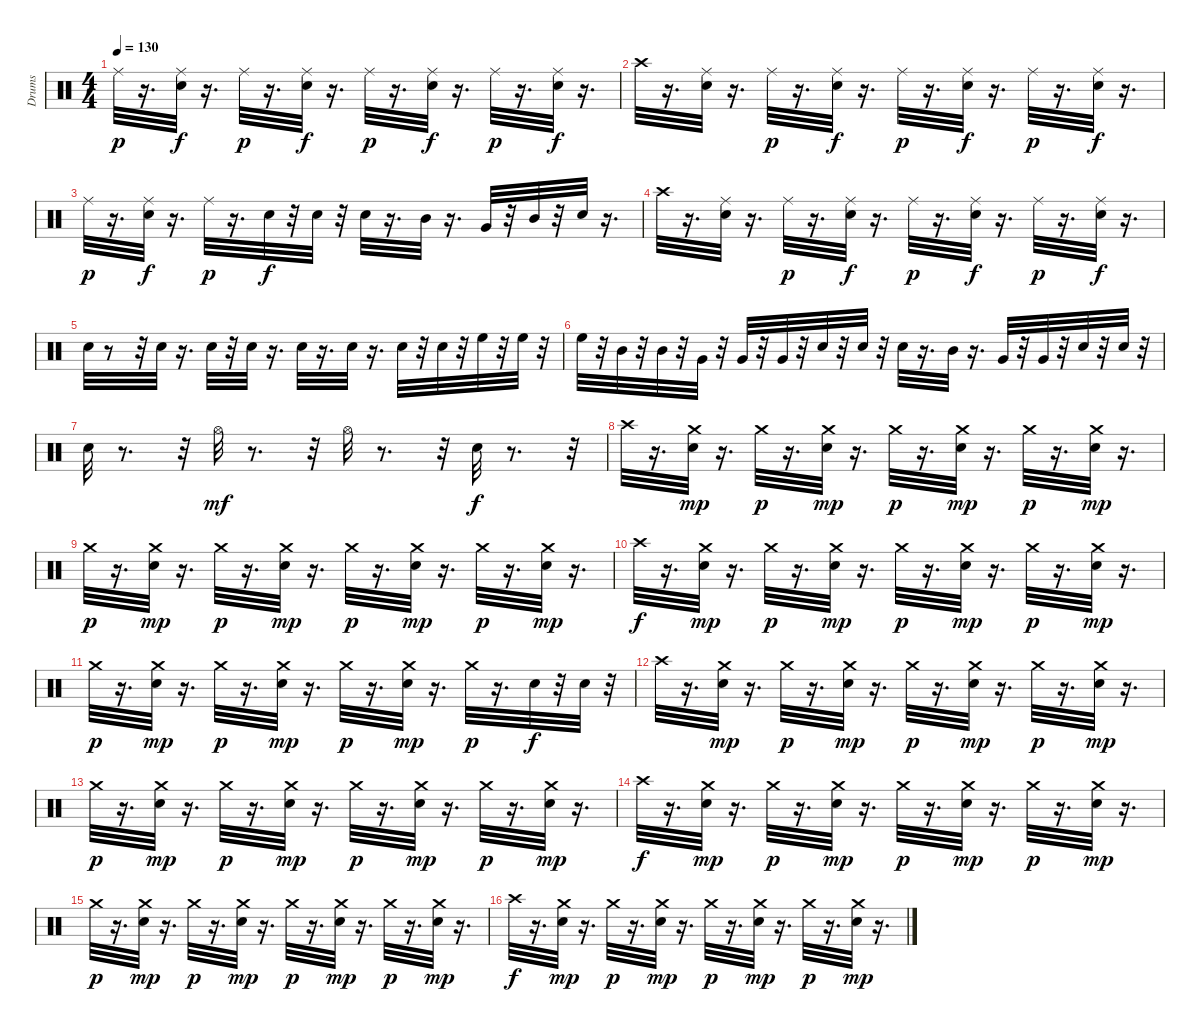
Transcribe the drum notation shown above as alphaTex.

\track ("Drums" "Drums") {instrument percussion}
\staff {score}
\articulation defaults
\ts (4 4)
\tempo 130
\clef neutral
\ks c "Ride (middle)".32{dy p}
r.16{d} ("Snare (hit) 2" "Ride (middle)").32{dy f} r.16{d} "Ride (middle)".32{dy p} r.16{d} ("Snare (hit) 2" "Ride (middle)").32{dy f} r.16{d} "Ride (middle)".32{dy p} r.16{d} ("Snare (hit) 2" "Ride (middle)").32{dy f} r.16{d} "Ride (middle)".32{dy p} r.16{d} ("Snare (hit) 2" "Ride (middle)").32{dy f} r.16{d} |
"Crash high (hit)".32 r.16{d} ("Snare (hit) 2" "Ride (middle)").32 r.16{d} "Ride (middle)".32{dy p} r.16{d} ("Snare (hit) 2" "Ride (middle)").32{dy f} r.16{d} "Ride (middle)".32{dy p} r.16{d} ("Snare (hit) 2" "Ride (middle)").32{dy f} r.16{d} "Ride (middle)".32{dy p} r.16{d} ("Snare (hit) 2" "Ride (middle)").32{dy f} r.16{d} |
"Ride (middle)".32{dy p} r.16{d} ("Snare (hit) 2" "Ride (middle)").32{dy f} r.16{d} "Ride (middle)".32{dy p} r.16{d} "Snare (hit) 2".32{dy f} r.32 "Snare (hit) 2".32 r.32 "Snare (hit) 2".32 r.16{d} "Mid Tom (hit)".32 r.16{d} "Very Low Tom (hit)".32 r.32 "Mid Tom (hit)".32 r.32 "Snare (hit)".32 r.16{d} |
"Crash high (hit)".32 r.16{d} ("Snare (hit) 2" "Ride (middle)").32 r.16{d} "Ride (middle)".32{dy p} r.16{d} ("Snare (hit) 2" "Ride (middle)").32{dy f} r.16{d} "Ride (middle)".32{dy p} r.16{d} ("Snare (hit) 2" "Ride (middle)").32{dy f} r.16{d} "Ride (middle)".32{dy p} r.16{d} ("Snare (hit) 2" "Ride (middle)").32{dy f} r.16{d} |
"Snare (hit) 2".32 r.8 r.32 "Snare (hit) 2".32 r.16{d} "Snare (hit) 2".32 r.32 "Snare (hit) 2".32 r.16{d} "Snare (hit) 2".32 r.16{d} "Snare (hit) 2".32 r.16{d} "Snare (hit) 2".32 r.32 "Snare (hit) 2".32 r.32 "High Floor Tom (hit)".32 r.32 "High Floor Tom (hit)".32 r.32 |
"High Floor Tom (hit)".32 r.32 "Mid Tom (hit)".32 r.32 "Mid Tom (hit)".32 r.32 "Very Low Tom (hit)".32 r.32 "Very Low Tom (hit)".32 r.32 "Very Low Tom (hit)".32 r.32 "Snare (hit)".32 r.32 "Snare (hit)".32 r.32 "Snare (hit) 2".32 r.16{d} "Mid Tom (hit)".32 r.16{d} "Very Low Tom (hit)".32 r.32 "Very Low Tom (hit)".32 r.32 "Snare (hit)".32 r.32 "Snare (hit)".32 r.32 |
"Snare (hit) 2".32 r.8{d} r.32 "Hi-Hat (open)".32{dy mf} r.8{d} r.32 "Hi-Hat (open)".32 r.8{d} r.32 "Snare (hit) 2".32{dy f} r.8{d} r.32 |
"Crash high (hit)".32 r.16{d} ("Snare (hit) 2" "Crash medium (hit)").32{dy mp} r.16{d} "Crash medium (hit)".32{dy p} r.16{d} ("Snare (hit) 2" "Crash medium (hit)").32{dy mp} r.16{d} "Crash medium (hit)".32{dy p} r.16{d} ("Snare (hit) 2" "Crash medium (hit)").32{dy mp} r.16{d} "Crash medium (hit)".32{dy p} r.16{d} ("Snare (hit) 2" "Crash medium (hit)").32{dy mp} r.16{d} |
"Crash medium (hit)".32{dy p} r.16{d} ("Snare (hit) 2" "Crash medium (hit)").32{dy mp} r.16{d} "Crash medium (hit)".32{dy p} r.16{d} ("Snare (hit) 2" "Crash medium (hit)").32{dy mp} r.16{d} "Crash medium (hit)".32{dy p} r.16{d} ("Snare (hit) 2" "Crash medium (hit)").32{dy mp} r.16{d} "Crash medium (hit)".32{dy p} r.16{d} ("Snare (hit) 2" "Crash medium (hit)").32{dy mp} r.16{d} |
"Crash high (hit)".32{dy f} r.16{d} ("Snare (hit) 2" "Crash medium (hit)").32{dy mp} r.16{d} "Crash medium (hit)".32{dy p} r.16{d} ("Snare (hit) 2" "Crash medium (hit)").32{dy mp} r.16{d} "Crash medium (hit)".32{dy p} r.16{d} ("Snare (hit) 2" "Crash medium (hit)").32{dy mp} r.16{d} "Crash medium (hit)".32{dy p} r.16{d} ("Snare (hit) 2" "Crash medium (hit)").32{dy mp} r.16{d} |
"Crash medium (hit)".32{dy p} r.16{d} ("Snare (hit) 2" "Crash medium (hit)").32{dy mp} r.16{d} "Crash medium (hit)".32{dy p} r.16{d} ("Snare (hit) 2" "Crash medium (hit)").32{dy mp} r.16{d} "Crash medium (hit)".32{dy p} r.16{d} ("Snare (hit) 2" "Crash medium (hit)").32{dy mp} r.16{d} "Crash medium (hit)".32{dy p} r.16{d} "Snare (hit) 2".32{dy f} r.32 "Snare (hit) 2".32 r.32 |
"Crash high (hit)".32 r.16{d} ("Snare (hit) 2" "Crash medium (hit)").32{dy mp} r.16{d} "Crash medium (hit)".32{dy p} r.16{d} ("Snare (hit) 2" "Crash medium (hit)").32{dy mp} r.16{d} "Crash medium (hit)".32{dy p} r.16{d} ("Snare (hit) 2" "Crash medium (hit)").32{dy mp} r.16{d} "Crash medium (hit)".32{dy p} r.16{d} ("Snare (hit) 2" "Crash medium (hit)").32{dy mp} r.16{d} |
"Crash medium (hit)".32{dy p} r.16{d} ("Snare (hit) 2" "Crash medium (hit)").32{dy mp} r.16{d} "Crash medium (hit)".32{dy p} r.16{d} ("Snare (hit) 2" "Crash medium (hit)").32{dy mp} r.16{d} "Crash medium (hit)".32{dy p} r.16{d} ("Snare (hit) 2" "Crash medium (hit)").32{dy mp} r.16{d} "Crash medium (hit)".32{dy p} r.16{d} ("Snare (hit) 2" "Crash medium (hit)").32{dy mp} r.16{d} |
"Crash high (hit)".32{dy f} r.16{d} ("Snare (hit) 2" "Crash medium (hit)").32{dy mp} r.16{d} "Crash medium (hit)".32{dy p} r.16{d} ("Snare (hit) 2" "Crash medium (hit)").32{dy mp} r.16{d} "Crash medium (hit)".32{dy p} r.16{d} ("Snare (hit) 2" "Crash medium (hit)").32{dy mp} r.16{d} "Crash medium (hit)".32{dy p} r.16{d} ("Snare (hit) 2" "Crash medium (hit)").32{dy mp} r.16{d} |
"Crash medium (hit)".32{dy p} r.16{d} ("Snare (hit) 2" "Crash medium (hit)").32{dy mp} r.16{d} "Crash medium (hit)".32{dy p} r.16{d} ("Snare (hit) 2" "Crash medium (hit)").32{dy mp} r.16{d} "Crash medium (hit)".32{dy p} r.16{d} ("Snare (hit) 2" "Crash medium (hit)").32{dy mp} r.16{d} "Crash medium (hit)".32{dy p} r.16{d} ("Snare (hit) 2" "Crash medium (hit)").32{dy mp} r.16{d} |
"Crash high (hit)".32{dy f} r.16{d} ("Snare (hit) 2" "Crash medium (hit)").32{dy mp} r.16{d} "Crash medium (hit)".32{dy p} r.16{d} ("Snare (hit) 2" "Crash medium (hit)").32{dy mp} r.16{d} "Crash medium (hit)".32{dy p} r.16{d} ("Snare (hit) 2" "Crash medium (hit)").32{dy mp} r.16{d} "Crash medium (hit)".32{dy p} r.16{d} ("Snare (hit) 2" "Crash medium (hit)").32{dy mp} r.16{d}
